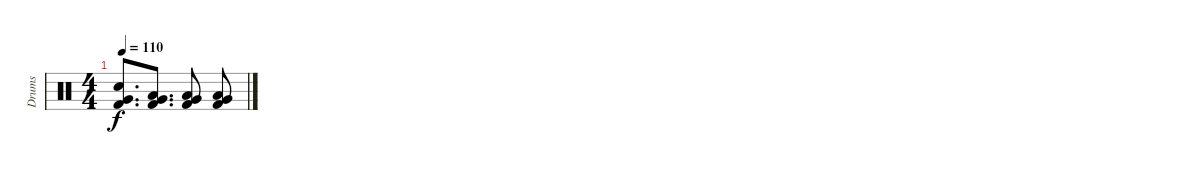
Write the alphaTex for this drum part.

\track ("Drums" "Drums") {instrument percussion}
\staff {score}
\articulation defaults
\ts (4 4)
\tempo 110
\clef neutral
\ks c
("Electric Snare (hit)" "Very Low Tom (hit)" "Kick (hit) 2").8{d dy f} ("Very Low Tom (hit)" "Low Floor Tom (hit)" "Kick (hit) 2").8{d} ("Very Low Tom (hit)" "Low Floor Tom (hit)" "Kick (hit) 2").8 ("Very Low Tom (hit)" "Low Floor Tom (hit)" "Kick (hit) 2").8
